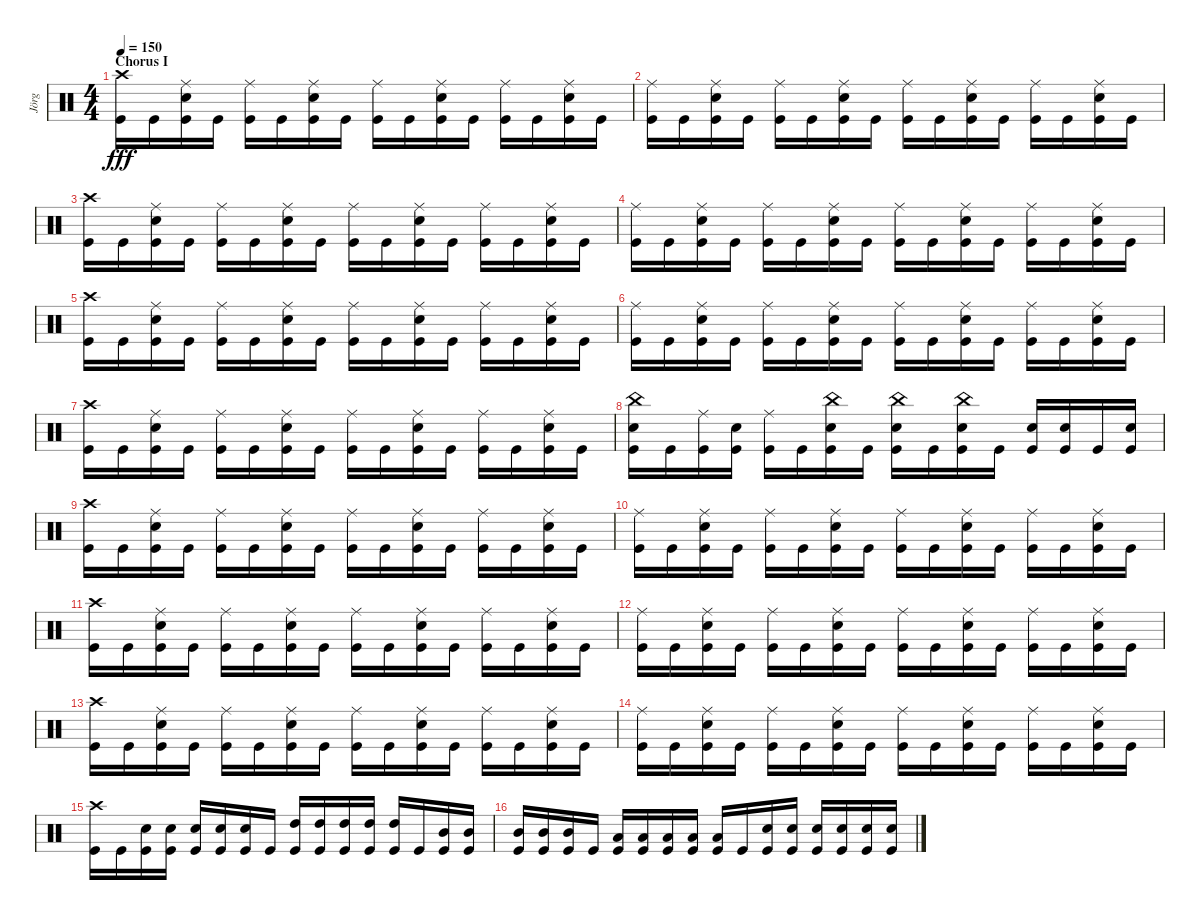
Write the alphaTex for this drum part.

\track ("Jörg" "Jörg") {instrument percussion}
\staff {score}
\articulation defaults
\ts (4 4)
\section ("" "Chorus I")
\tempo 150
\clef neutral
\ks c
("Crash high (hit)" "Kick (hit)").16{dy fff} "Kick (hit)".16 ("Ride (middle)" "Snare (hit) 2" "Kick (hit)").16 "Kick (hit)".16 ("Ride (middle)" "Kick (hit)").16 "Kick (hit)".16 ("Ride (middle)" "Snare (hit) 2" "Kick (hit)").16 "Kick (hit)".16 ("Ride (middle)" "Kick (hit)").16 "Kick (hit)".16 ("Ride (middle)" "Snare (hit) 2" "Kick (hit)").16 "Kick (hit)".16 ("Ride (middle)" "Kick (hit)").16 "Kick (hit)".16 ("Ride (middle)" "Snare (hit) 2" "Kick (hit)").16 "Kick (hit)".16 |
("Ride (middle)" "Kick (hit)").16 "Kick (hit)".16 ("Ride (middle)" "Snare (hit) 2" "Kick (hit)").16 "Kick (hit)".16 ("Ride (middle)" "Kick (hit)").16 "Kick (hit)".16 ("Ride (middle)" "Snare (hit) 2" "Kick (hit)").16 "Kick (hit)".16 ("Ride (middle)" "Kick (hit)").16 "Kick (hit)".16 ("Ride (middle)" "Snare (hit) 2" "Kick (hit)").16 "Kick (hit)".16 ("Ride (middle)" "Kick (hit)").16 "Kick (hit)".16 ("Ride (middle)" "Snare (hit) 2" "Kick (hit)").16 "Kick (hit)".16 |
("Crash high (hit)" "Kick (hit)").16 "Kick (hit)".16 ("Ride (middle)" "Snare (hit) 2" "Kick (hit)").16 "Kick (hit)".16 ("Ride (middle)" "Kick (hit)").16 "Kick (hit)".16 ("Ride (middle)" "Snare (hit) 2" "Kick (hit)").16 "Kick (hit)".16 ("Ride (middle)" "Kick (hit)").16 "Kick (hit)".16 ("Ride (middle)" "Snare (hit) 2" "Kick (hit)").16 "Kick (hit)".16 ("Ride (middle)" "Kick (hit)").16 "Kick (hit)".16 ("Ride (middle)" "Snare (hit) 2" "Kick (hit)").16 "Kick (hit)".16 |
("Ride (middle)" "Kick (hit)").16 "Kick (hit)".16 ("Ride (middle)" "Snare (hit) 2" "Kick (hit)").16 "Kick (hit)".16 ("Ride (middle)" "Kick (hit)").16 "Kick (hit)".16 ("Ride (middle)" "Snare (hit) 2" "Kick (hit)").16 "Kick (hit)".16 ("Ride (middle)" "Kick (hit)").16 "Kick (hit)".16 ("Ride (middle)" "Snare (hit) 2" "Kick (hit)").16 "Kick (hit)".16 ("Ride (middle)" "Kick (hit)").16 "Kick (hit)".16 ("Ride (middle)" "Snare (hit) 2" "Kick (hit)").16 "Kick (hit)".16 |
("Crash high (hit)" "Kick (hit)").16 "Kick (hit)".16 ("Ride (middle)" "Snare (hit) 2" "Kick (hit)").16 "Kick (hit)".16 ("Ride (middle)" "Kick (hit)").16 "Kick (hit)".16 ("Ride (middle)" "Snare (hit) 2" "Kick (hit)").16 "Kick (hit)".16 ("Ride (middle)" "Kick (hit)").16 "Kick (hit)".16 ("Ride (middle)" "Snare (hit) 2" "Kick (hit)").16 "Kick (hit)".16 ("Ride (middle)" "Kick (hit)").16 "Kick (hit)".16 ("Ride (middle)" "Snare (hit) 2" "Kick (hit)").16 "Kick (hit)".16 |
("Ride (middle)" "Kick (hit)").16 "Kick (hit)".16 ("Ride (middle)" "Snare (hit) 2" "Kick (hit)").16 "Kick (hit)".16 ("Ride (middle)" "Kick (hit)").16 "Kick (hit)".16 ("Ride (middle)" "Snare (hit) 2" "Kick (hit)").16 "Kick (hit)".16 ("Ride (middle)" "Kick (hit)").16 "Kick (hit)".16 ("Ride (middle)" "Snare (hit) 2" "Kick (hit)").16 "Kick (hit)".16 ("Ride (middle)" "Kick (hit)").16 "Kick (hit)".16 ("Ride (middle)" "Snare (hit) 2" "Kick (hit)").16 "Kick (hit)".16 |
("Crash high (hit)" "Kick (hit)").16 "Kick (hit)".16 ("Ride (middle)" "Snare (hit) 2" "Kick (hit)").16 "Kick (hit)".16 ("Ride (middle)" "Kick (hit)").16 "Kick (hit)".16 ("Ride (middle)" "Snare (hit) 2" "Kick (hit)").16 "Kick (hit)".16 ("Ride (middle)" "Kick (hit)").16 "Kick (hit)".16 ("Ride (middle)" "Snare (hit) 2" "Kick (hit)").16 "Kick (hit)".16 ("Ride (middle)" "Kick (hit)").16 "Kick (hit)".16 ("Ride (middle)" "Snare (hit) 2" "Kick (hit)").16 "Kick (hit)".16 |
("Snare (hit) 2" "China (hit)" "Kick (hit)").16 "Kick (hit)".16 ("Ride (middle)" "Kick (hit)").16 ("Snare (hit) 2" "Kick (hit)").16 ("Ride (middle)" "Kick (hit)").16 "Kick (hit)".16 ("China (hit)" "Snare (hit) 2" "Kick (hit)").16 "Kick (hit)".16 ("China (hit)" "Snare (hit) 2" "Kick (hit)").16 "Kick (hit)".16 ("China (hit)" "Snare (hit) 2" "Kick (hit)").16 "Kick (hit)".16 ("Snare (hit) 2" "Kick (hit)").16 ("Snare (hit) 2" "Kick (hit)").16 "Kick (hit)".16 ("Snare (hit) 2" "Kick (hit)").16 |
("Crash high (hit)" "Kick (hit)").16 "Kick (hit)".16 ("Ride (middle)" "Snare (hit) 2" "Kick (hit)").16 "Kick (hit)".16 ("Ride (middle)" "Kick (hit)").16 "Kick (hit)".16 ("Ride (middle)" "Snare (hit) 2" "Kick (hit)").16 "Kick (hit)".16 ("Ride (middle)" "Kick (hit)").16 "Kick (hit)".16 ("Ride (middle)" "Snare (hit) 2" "Kick (hit)").16 "Kick (hit)".16 ("Ride (middle)" "Kick (hit)").16 "Kick (hit)".16 ("Ride (middle)" "Snare (hit) 2" "Kick (hit)").16 "Kick (hit)".16 |
("Ride (middle)" "Kick (hit)").16 "Kick (hit)".16 ("Ride (middle)" "Snare (hit) 2" "Kick (hit)").16 "Kick (hit)".16 ("Ride (middle)" "Kick (hit)").16 "Kick (hit)".16 ("Ride (middle)" "Snare (hit) 2" "Kick (hit)").16 "Kick (hit)".16 ("Ride (middle)" "Kick (hit)").16 "Kick (hit)".16 ("Ride (middle)" "Snare (hit) 2" "Kick (hit)").16 "Kick (hit)".16 ("Ride (middle)" "Kick (hit)").16 "Kick (hit)".16 ("Ride (middle)" "Snare (hit) 2" "Kick (hit)").16 "Kick (hit)".16 |
("Crash high (hit)" "Kick (hit)").16 "Kick (hit)".16 ("Ride (middle)" "Snare (hit) 2" "Kick (hit)").16 "Kick (hit)".16 ("Ride (middle)" "Kick (hit)").16 "Kick (hit)".16 ("Ride (middle)" "Snare (hit) 2" "Kick (hit)").16 "Kick (hit)".16 ("Ride (middle)" "Kick (hit)").16 "Kick (hit)".16 ("Ride (middle)" "Snare (hit) 2" "Kick (hit)").16 "Kick (hit)".16 ("Ride (middle)" "Kick (hit)").16 "Kick (hit)".16 ("Ride (middle)" "Snare (hit) 2" "Kick (hit)").16 "Kick (hit)".16 |
("Ride (middle)" "Kick (hit)").16 "Kick (hit)".16 ("Ride (middle)" "Snare (hit) 2" "Kick (hit)").16 "Kick (hit)".16 ("Ride (middle)" "Kick (hit)").16 "Kick (hit)".16 ("Ride (middle)" "Snare (hit) 2" "Kick (hit)").16 "Kick (hit)".16 ("Ride (middle)" "Kick (hit)").16 "Kick (hit)".16 ("Ride (middle)" "Snare (hit) 2" "Kick (hit)").16 "Kick (hit)".16 ("Ride (middle)" "Kick (hit)").16 "Kick (hit)".16 ("Ride (middle)" "Snare (hit) 2" "Kick (hit)").16 "Kick (hit)".16 |
("Crash high (hit)" "Kick (hit)").16 "Kick (hit)".16 ("Ride (middle)" "Snare (hit) 2" "Kick (hit)").16 "Kick (hit)".16 ("Ride (middle)" "Kick (hit)").16 "Kick (hit)".16 ("Ride (middle)" "Snare (hit) 2" "Kick (hit)").16 "Kick (hit)".16 ("Ride (middle)" "Kick (hit)").16 "Kick (hit)".16 ("Ride (middle)" "Snare (hit) 2" "Kick (hit)").16 "Kick (hit)".16 ("Ride (middle)" "Kick (hit)").16 "Kick (hit)".16 ("Ride (middle)" "Snare (hit) 2" "Kick (hit)").16 "Kick (hit)".16 |
("Ride (middle)" "Kick (hit)").16 "Kick (hit)".16 ("Ride (middle)" "Snare (hit) 2" "Kick (hit)").16 "Kick (hit)".16 ("Ride (middle)" "Kick (hit)").16 "Kick (hit)".16 ("Ride (middle)" "Snare (hit) 2" "Kick (hit)").16 "Kick (hit)".16 ("Ride (middle)" "Kick (hit)").16 "Kick (hit)".16 ("Ride (middle)" "Snare (hit) 2" "Kick (hit)").16 "Kick (hit)".16 ("Ride (middle)" "Kick (hit)").16 "Kick (hit)".16 ("Ride (middle)" "Snare (hit) 2" "Kick (hit)").16 "Kick (hit)".16 |
("Kick (hit)" "Crash high (hit)").16 "Kick (hit)".16 ("Snare (hit) 2" "Kick (hit)").16 ("Snare (hit) 2" "Kick (hit)").16 ("Snare (hit) 2" "Kick (hit)").16 ("Snare (hit) 2" "Kick (hit)").16 ("Snare (hit) 2" "Kick (hit)").16 "Kick (hit)".16 ("High Tom (hit)" "Kick (hit)").16 ("High Tom (hit)" "Kick (hit)").16 ("High Tom (hit)" "Kick (hit)").16 ("High Tom (hit)" "Kick (hit)").16 ("High Tom (hit)" "Kick (hit)").16 "Kick (hit)".16 ("Mid Tom (hit)" "Kick (hit)").16 ("Mid Tom (hit)" "Kick (hit)").16 |
("Mid Tom (hit)" "Kick (hit)").16 ("Mid Tom (hit)" "Kick (hit)").16 ("Mid Tom (hit)" "Kick (hit)").16 "Kick (hit)".16 ("Low Tom (hit)" "Kick (hit)").16 ("Low Tom (hit)" "Kick (hit)").16 ("Low Tom (hit)" "Kick (hit)").16 ("Low Tom (hit)" "Kick (hit)").16 ("Low Tom (hit)" "Kick (hit)").16 "Kick (hit)".16 ("Snare (hit) 2" "Kick (hit)").16 ("Snare (hit) 2" "Kick (hit)").16 ("Snare (hit) 2" "Kick (hit)").16 ("Snare (hit) 2" "Kick (hit)").16 ("Snare (hit) 2" "Kick (hit)").16 ("Snare (hit) 2" "Kick (hit)").16
